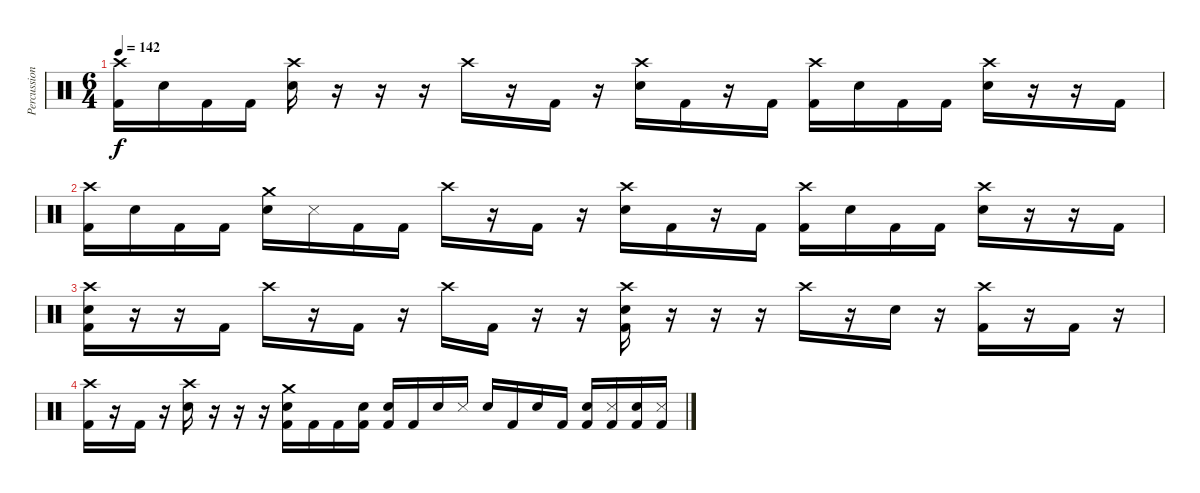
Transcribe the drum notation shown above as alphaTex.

\track ("Percussion" "Percussion") {instrument percussion}
\staff {score}
\articulation defaults
\ts (6 4)
\tempo 142
\clef neutral
\ks c
("Crash high (hit)" "Kick (hit) 2").16{dy f} "Snare (hit) 2".16 "Kick (hit) 2".16 "Kick (hit) 2".16 ("Crash high (hit)" "Snare (hit) 2").16 r.16 r.16 r.16 "Crash high (hit)".16 r.16 "Kick (hit) 2".16 r.16 ("Crash high (hit)" "Snare (hit) 2").16 "Kick (hit) 2".16 r.16 "Kick (hit) 2".16 ("Crash high (hit)" "Kick (hit) 2").16 "Snare (hit) 2".16 "Kick (hit) 2".16 "Kick (hit) 2".16 ("Crash high (hit)" "Snare (hit) 2").16 r.16 r.16 "Kick (hit) 2".16 |
("Crash high (hit)" "Kick (hit) 2").16 "Snare (hit) 2".16 "Kick (hit) 2".16 "Kick (hit) 2".16 ("Crash medium (hit)" "Snare (hit) 2").16 "Metronome (hit)".16 "Kick (hit) 2".16 "Kick (hit) 2".16 "Crash high (hit)".16 r.16 "Kick (hit) 2".16 r.16 ("Crash high (hit)" "Snare (hit) 2").16 "Kick (hit) 2".16 r.16 "Kick (hit) 2".16 ("Crash high (hit)" "Kick (hit) 2").16 "Snare (hit) 2".16 "Kick (hit) 2".16 "Kick (hit) 2".16 ("Crash high (hit)" "Snare (hit) 2").16 r.16 r.16 "Kick (hit) 2".16 |
("Crash high (hit)" "Snare (hit) 2" "Kick (hit) 2").16 r.16 r.16 "Kick (hit) 2".16 "Crash high (hit)".16 r.16 "Kick (hit) 2".16 r.16 "Crash high (hit)".16 "Kick (hit) 2".16 r.16 r.16 ("Crash high (hit)" "Snare (hit) 2" "Kick (hit) 2").16 r.16 r.16 r.16 "Crash high (hit)".16 r.16 "Snare (hit) 2".16 r.16 ("Crash high (hit)" "Kick (hit) 2").16 r.16 "Kick (hit) 2".16 r.16 |
("Crash high (hit)" "Kick (hit) 2").16 r.16 "Kick (hit) 2".16 r.16 ("Crash high (hit)" "Snare (hit) 2").16 r.16 r.16 r.16 ("Crash medium (hit)" "Snare (hit) 2" "Kick (hit) 2").16 "Kick (hit) 2".16 "Kick (hit) 2".16 ("Snare (hit) 2" "Kick (hit) 2").16 ("Snare (hit)" "Kick (hit) 2").16 "Kick (hit) 2".16 "Snare (hit) 2".16 "Metronome (hit)".16 "Snare (hit) 2".16 "Kick (hit) 2".16 "Snare (hit) 2".16 "Kick (hit) 2".16 ("Snare (hit) 2" "Kick (hit) 2").16 ("Metronome (hit)" "Kick (hit) 2").16 ("Snare (hit) 2" "Kick (hit) 2").16 ("Metronome (hit)" "Kick (hit) 2").16
